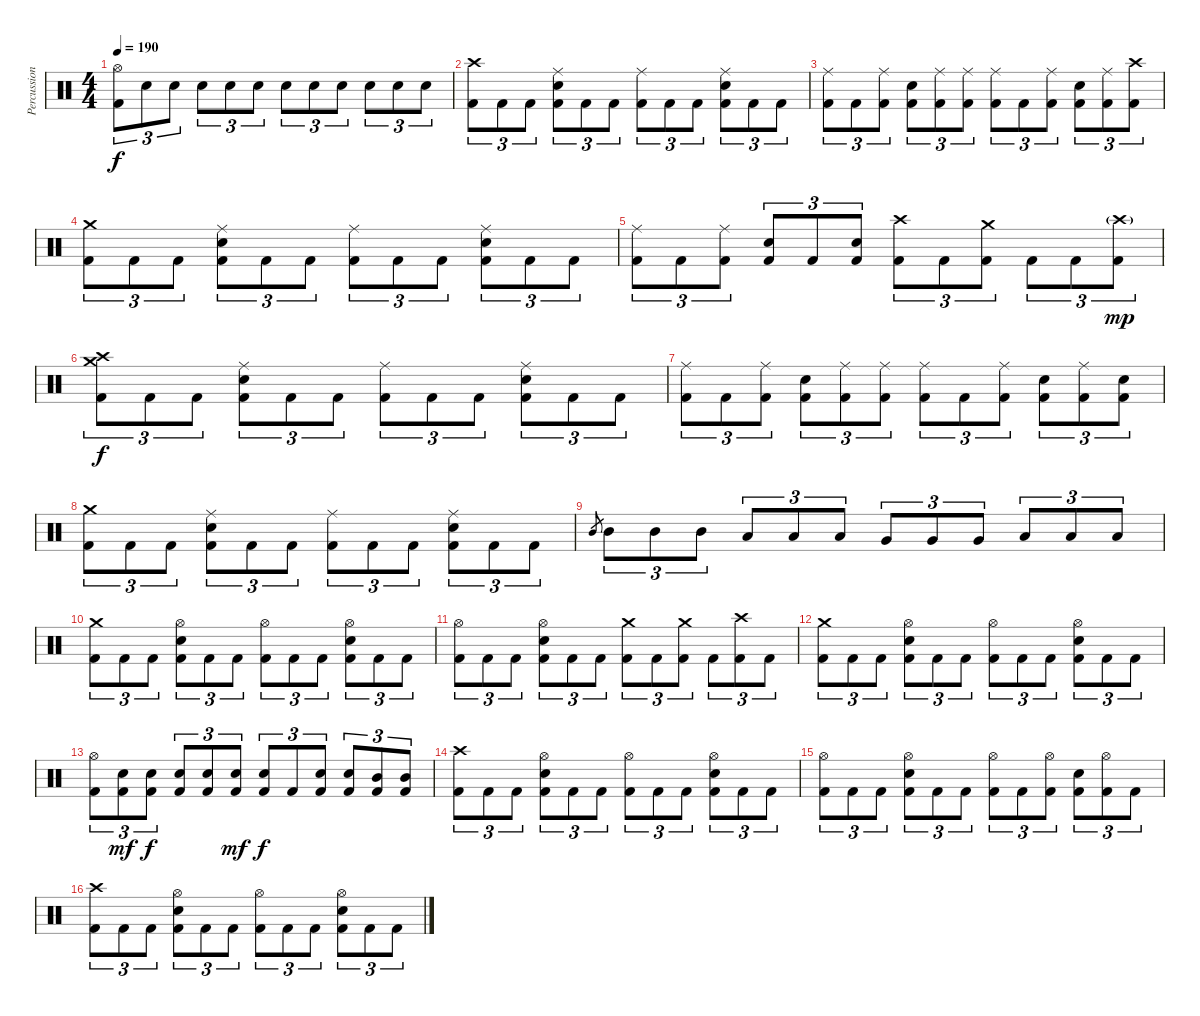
\track ("Percussion" "Percussion") {instrument percussion}
\staff {score}
\articulation defaults
\ts (4 4)
\tempo 190
\clef neutral
\ks c
("Hi-Hat (open)" "Kick (hit) 2").8{tu (3 2) dy f} "Electric Snare (hit)".8{tu (3 2)} "Electric Snare (hit)".8{tu (3 2)} "Electric Snare (hit)".8{tu (3 2)} "Electric Snare (hit)".8{tu (3 2)} "Electric Snare (hit)".8{tu (3 2)} "Electric Snare (hit)".8{tu (3 2)} "Electric Snare (hit)".8{tu (3 2)} "Electric Snare (hit)".8{tu (3 2)} "Electric Snare (hit)".8{tu (3 2)} "Electric Snare (hit)".8{tu (3 2)} "Electric Snare (hit)".8{tu (3 2)} |
("Crash high (hit)" "Kick (hit) 2").8{tu (3 2)} "Kick (hit) 2".8{tu (3 2)} "Kick (hit) 2".8{tu (3 2)} ("Ride (middle)" "Electric Snare (hit)" "Kick (hit) 2").8{tu (3 2)} "Kick (hit) 2".8{tu (3 2)} "Kick (hit) 2".8{tu (3 2)} ("Ride (middle)" "Kick (hit) 2").8{tu (3 2)} "Kick (hit) 2".8{tu (3 2)} "Kick (hit) 2".8{tu (3 2)} ("Ride (middle)" "Electric Snare (hit)" "Kick (hit) 2").8{tu (3 2)} "Kick (hit) 2".8{tu (3 2)} "Kick (hit) 2".8{tu (3 2)} |
("Ride (middle)" "Kick (hit) 2").8{tu (3 2)} "Kick (hit) 2".8{tu (3 2)} ("Ride (middle)" "Kick (hit) 2").8{tu (3 2)} ("Electric Snare (hit)" "Kick (hit) 2").8{tu (3 2)} ("Ride (middle)" "Kick (hit) 2").8{tu (3 2)} ("Ride (middle)" "Kick (hit) 2").8{tu (3 2)} ("Ride (middle)" "Kick (hit) 2").8{tu (3 2)} "Kick (hit) 2".8{tu (3 2)} ("Ride (middle)" "Kick (hit) 2").8{tu (3 2)} ("Electric Snare (hit)" "Kick (hit) 2").8{tu (3 2)} ("Ride (middle)" "Kick (hit) 2").8{tu (3 2)} ("Crash high (hit)" "Kick (hit) 2").8{tu (3 2)} |
("Crash medium (hit)" "Kick (hit) 2").8{tu (3 2)} "Kick (hit) 2".8{tu (3 2)} "Kick (hit) 2".8{tu (3 2)} ("Ride (middle)" "Electric Snare (hit)" "Kick (hit) 2").8{tu (3 2)} "Kick (hit) 2".8{tu (3 2)} "Kick (hit) 2".8{tu (3 2)} ("Ride (middle)" "Kick (hit) 2").8{tu (3 2)} "Kick (hit) 2".8{tu (3 2)} "Kick (hit) 2".8{tu (3 2)} ("Ride (middle)" "Electric Snare (hit)" "Kick (hit) 2").8{tu (3 2)} "Kick (hit) 2".8{tu (3 2)} "Kick (hit) 2".8{tu (3 2)} |
("Ride (middle)" "Kick (hit) 2").8{tu (3 2)} "Kick (hit) 2".8{tu (3 2)} ("Ride (middle)" "Kick (hit) 2").8{tu (3 2)} ("Electric Snare (hit)" "Kick (hit) 2").8{tu (3 2)} "Kick (hit) 2".8{tu (3 2)} ("Electric Snare (hit)" "Kick (hit) 2").8{tu (3 2)} ("Crash high (hit)" "Kick (hit) 2").8{tu (3 2)} "Kick (hit) 2".8{tu (3 2)} ("Crash medium (hit)" "Kick (hit) 2").8{tu (3 2)} "Kick (hit) 2".8{tu (3 2)} "Kick (hit) 2".8{tu (3 2)} ("Crash high (hit)"{g} "Kick (hit) 2").8{tu (3 2) dy mp} |
("Crash high (hit)" "Crash medium (hit)" "Kick (hit) 2").8{tu (3 2) dy f} "Kick (hit) 2".8{tu (3 2)} "Kick (hit) 2".8{tu (3 2)} ("Ride (middle)" "Electric Snare (hit)" "Kick (hit) 2").8{tu (3 2)} "Kick (hit) 2".8{tu (3 2)} "Kick (hit) 2".8{tu (3 2)} ("Ride (middle)" "Kick (hit) 2").8{tu (3 2)} "Kick (hit) 2".8{tu (3 2)} "Kick (hit) 2".8{tu (3 2)} ("Ride (middle)" "Electric Snare (hit)" "Kick (hit) 2").8{tu (3 2)} "Kick (hit) 2".8{tu (3 2)} "Kick (hit) 2".8{tu (3 2)} |
("Ride (middle)" "Kick (hit) 2").8{tu (3 2)} "Kick (hit) 2".8{tu (3 2)} ("Ride (middle)" "Kick (hit) 2").8{tu (3 2)} ("Electric Snare (hit)" "Kick (hit) 2").8{tu (3 2)} ("Ride (middle)" "Kick (hit) 2").8{tu (3 2)} ("Ride (middle)" "Kick (hit) 2").8{tu (3 2)} ("Ride (middle)" "Kick (hit) 2").8{tu (3 2)} "Kick (hit) 2".8{tu (3 2)} ("Ride (middle)" "Kick (hit) 2").8{tu (3 2)} ("Electric Snare (hit)" "Kick (hit) 2").8{tu (3 2)} ("Ride (middle)" "Kick (hit) 2").8{tu (3 2)} ("Electric Snare (hit)" "Kick (hit) 2").8{tu (3 2)} |
("Crash medium (hit)" "Kick (hit) 2").8{tu (3 2)} "Kick (hit) 2".8{tu (3 2)} "Kick (hit) 2".8{tu (3 2)} ("Ride (middle)" "Electric Snare (hit)" "Kick (hit) 2").8{tu (3 2)} "Kick (hit) 2".8{tu (3 2)} "Kick (hit) 2".8{tu (3 2)} ("Ride (middle)" "Kick (hit) 2").8{tu (3 2)} "Kick (hit) 2".8{tu (3 2)} "Kick (hit) 2".8{tu (3 2)} ("Ride (middle)" "Electric Snare (hit)" "Kick (hit) 2").8{tu (3 2)} "Kick (hit) 2".8{tu (3 2)} "Kick (hit) 2".8{tu (3 2)} |
"Mid Tom (hit)".8{gr} "Mid Tom (hit)".8{tu (3 2)} "Mid Tom (hit)".8{tu (3 2)} "Mid Tom (hit)".8{tu (3 2)} "Low Tom (hit)".8{tu (3 2)} "Low Tom (hit)".8{tu (3 2)} "Low Tom (hit)".8{tu (3 2)} "Very Low Tom (hit)".8{tu (3 2)} "Very Low Tom (hit)".8{tu (3 2)} "Very Low Tom (hit)".8{tu (3 2)} "Low Floor Tom (hit)".8{tu (3 2)} "Low Floor Tom (hit)".8{tu (3 2)} "Low Floor Tom (hit)".8{tu (3 2)} |
("Crash medium (hit)" "Kick (hit) 2").8{tu (3 2)} "Kick (hit) 2".8{tu (3 2)} "Kick (hit) 2".8{tu (3 2)} ("Hi-Hat (open)" "Electric Snare (hit)" "Kick (hit) 2").8{tu (3 2)} "Kick (hit) 2".8{tu (3 2)} "Kick (hit) 2".8{tu (3 2)} ("Hi-Hat (open)" "Kick (hit) 2").8{tu (3 2)} "Kick (hit) 2".8{tu (3 2)} "Kick (hit) 2".8{tu (3 2)} ("Hi-Hat (open)" "Electric Snare (hit)" "Kick (hit) 2").8{tu (3 2)} "Kick (hit) 2".8{tu (3 2)} "Kick (hit) 2".8{tu (3 2)} |
("Hi-Hat (open)" "Kick (hit) 2").8{tu (3 2)} "Kick (hit) 2".8{tu (3 2)} "Kick (hit) 2".8{tu (3 2)} ("Hi-Hat (open)" "Electric Snare (hit)" "Kick (hit) 2").8{tu (3 2)} "Kick (hit) 2".8{tu (3 2)} "Kick (hit) 2".8{tu (3 2)} ("Crash medium (hit)" "Kick (hit) 2").8{tu (3 2)} "Kick (hit) 2".8{tu (3 2)} ("Crash medium (hit)" "Kick (hit) 2").8{tu (3 2)} "Kick (hit) 2".8{tu (3 2)} ("Crash high (hit)" "Kick (hit) 2").8{tu (3 2)} "Kick (hit) 2".8{tu (3 2)} |
("Crash medium (hit)" "Kick (hit) 2").8{tu (3 2)} "Kick (hit) 2".8{tu (3 2)} "Kick (hit) 2".8{tu (3 2)} ("Hi-Hat (open)" "Electric Snare (hit)" "Kick (hit) 2").8{tu (3 2)} "Kick (hit) 2".8{tu (3 2)} "Kick (hit) 2".8{tu (3 2)} ("Hi-Hat (open)" "Kick (hit) 2").8{tu (3 2)} "Kick (hit) 2".8{tu (3 2)} "Kick (hit) 2".8{tu (3 2)} ("Hi-Hat (open)" "Electric Snare (hit)" "Kick (hit) 2").8{tu (3 2)} "Kick (hit) 2".8{tu (3 2)} "Kick (hit) 2".8{tu (3 2)} |
("Hi-Hat (open)" "Kick (hit) 2").8{tu (3 2)} ("Electric Snare (hit)" "Kick (hit) 2").8{tu (3 2) dy mf} ("Electric Snare (hit)" "Kick (hit) 2").8{tu (3 2) dy f} ("Electric Snare (hit)" "Kick (hit) 2").8{tu (3 2)} ("Electric Snare (hit)" "Kick (hit) 2").8{tu (3 2)} ("Electric Snare (hit)" "Kick (hit) 2").8{tu (3 2) dy mf} ("Electric Snare (hit)" "Kick (hit) 2").8{tu (3 2) dy f} "Kick (hit) 2".8{tu (3 2)} ("Electric Snare (hit)" "Kick (hit) 2").8{tu (3 2)} ("Electric Snare (hit)" "Kick (hit) 2").8{tu (3 2)} ("Mid Tom (hit)" "Kick (hit) 2").8{tu (3 2)} ("Mid Tom (hit)" "Kick (hit) 2").8{tu (3 2)} |
("Crash high (hit)" "Kick (hit) 2").8{tu (3 2)} "Kick (hit) 2".8{tu (3 2)} "Kick (hit) 2".8{tu (3 2)} ("Hi-Hat (open)" "Electric Snare (hit)" "Kick (hit) 2").8{tu (3 2)} "Kick (hit) 2".8{tu (3 2)} "Kick (hit) 2".8{tu (3 2)} ("Hi-Hat (open)" "Kick (hit) 2").8{tu (3 2)} "Kick (hit) 2".8{tu (3 2)} "Kick (hit) 2".8{tu (3 2)} ("Hi-Hat (open)" "Electric Snare (hit)" "Kick (hit) 2").8{tu (3 2)} "Kick (hit) 2".8{tu (3 2)} "Kick (hit) 2".8{tu (3 2)} |
("Hi-Hat (open)" "Kick (hit) 2").8{tu (3 2)} "Kick (hit) 2".8{tu (3 2)} "Kick (hit) 2".8{tu (3 2)} ("Hi-Hat (open)" "Electric Snare (hit)" "Kick (hit) 2").8{tu (3 2)} "Kick (hit) 2".8{tu (3 2)} "Kick (hit) 2".8{tu (3 2)} ("Hi-Hat (open)" "Kick (hit) 2").8{tu (3 2)} "Kick (hit) 2".8{tu (3 2)} ("Hi-Hat (open)" "Kick (hit) 2").8{tu (3 2)} ("Electric Snare (hit)" "Kick (hit) 2").8{tu (3 2)} ("Hi-Hat (open)" "Kick (hit) 2").8{tu (3 2)} "Kick (hit) 2".8{tu (3 2)} |
("Crash high (hit)" "Kick (hit) 2").8{tu (3 2)} "Kick (hit) 2".8{tu (3 2)} "Kick (hit) 2".8{tu (3 2)} ("Hi-Hat (open)" "Electric Snare (hit)" "Kick (hit) 2").8{tu (3 2)} "Kick (hit) 2".8{tu (3 2)} "Kick (hit) 2".8{tu (3 2)} ("Hi-Hat (open)" "Kick (hit) 2").8{tu (3 2)} "Kick (hit) 2".8{tu (3 2)} "Kick (hit) 2".8{tu (3 2)} ("Hi-Hat (open)" "Electric Snare (hit)" "Kick (hit) 2").8{tu (3 2)} "Kick (hit) 2".8{tu (3 2)} "Kick (hit) 2".8{tu (3 2)}
